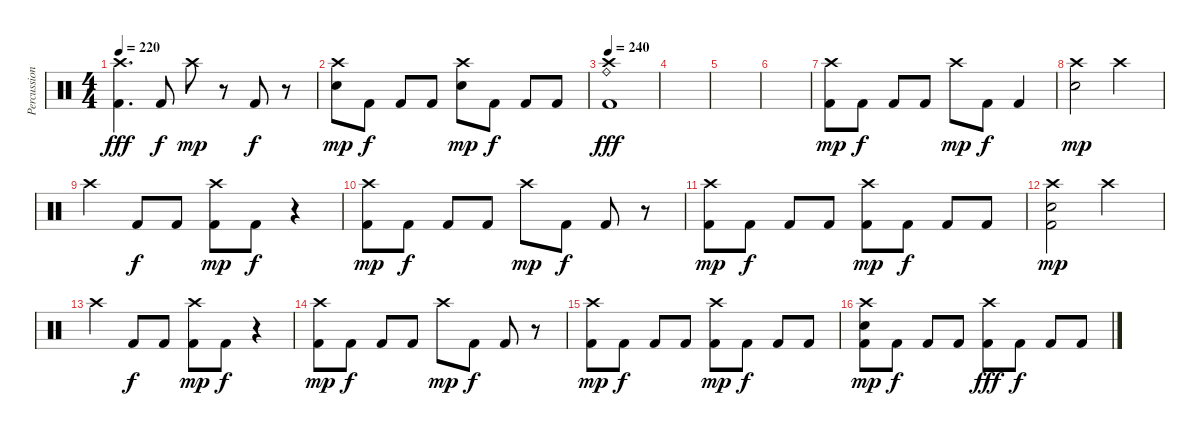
\track ("Percussion" "Percussion") {instrument percussion}
\staff {score}
\articulation defaults
\ts (4 4)
\tempo 220
\clef neutral
\ks c
("Crash high (hit)" "Kick (hit) 2").4{d dy fff} "Kick (hit) 2".8{dy f} "Crash high (hit)".8{dy mp} r.8 "Kick (hit) 2".8{dy f} r.8 |
("Crash high (hit)" "Electric Snare (hit)").8{dy mp} "Kick (hit) 2".8{dy f} "Kick (hit) 2".8 "Kick (hit) 2".8 ("Crash high (hit)" "Electric Snare (hit)").8{dy mp} "Kick (hit) 2".8{dy f} "Kick (hit) 2".8 "Kick (hit) 2".8 |
\tempo 240
("Crash high (hit)" "Ride (bell)" "Kick (hit) 2").1{dy fff} |
|
|
|
("Crash high (hit)" "Kick (hit) 2").8{dy mp} "Kick (hit) 2".8{dy f} "Kick (hit) 2".8 "Kick (hit) 2".8 "Crash high (hit)".8{dy mp} "Kick (hit) 2".8{dy f} "Kick (hit) 2".4 |
("Crash high (hit)" "Electric Snare (hit)").2{dy mp} "Crash high (hit)".2 |
"Crash high (hit)".4 "Kick (hit) 2".8{dy f} "Kick (hit) 2".8 ("Crash high (hit)" "Kick (hit) 2").8{dy mp} "Kick (hit) 2".8{dy f} r.4 |
("Crash high (hit)" "Kick (hit) 2").8{dy mp} "Kick (hit) 2".8{dy f} "Kick (hit) 2".8 "Kick (hit) 2".8 "Crash high (hit)".8{dy mp} "Kick (hit) 2".8{dy f} "Kick (hit) 2".8 r.8 |
("Crash high (hit)" "Kick (hit) 2").8{dy mp} "Kick (hit) 2".8{dy f} "Kick (hit) 2".8 "Kick (hit) 2".8 ("Crash high (hit)" "Kick (hit) 2").8{dy mp} "Kick (hit) 2".8{dy f} "Kick (hit) 2".8 "Kick (hit) 2".8 |
("Crash high (hit)" "Electric Snare (hit)" "Kick (hit) 2").2{dy mp} "Crash high (hit)".2 |
"Crash high (hit)".4 "Kick (hit) 2".8{dy f} "Kick (hit) 2".8 ("Crash high (hit)" "Kick (hit) 2").8{dy mp} "Kick (hit) 2".8{dy f} r.4 |
("Crash high (hit)" "Kick (hit) 2").8{dy mp} "Kick (hit) 2".8{dy f} "Kick (hit) 2".8 "Kick (hit) 2".8 "Crash high (hit)".8{dy mp} "Kick (hit) 2".8{dy f} "Kick (hit) 2".8 r.8 |
("Crash high (hit)" "Kick (hit) 2").8{dy mp} "Kick (hit) 2".8{dy f} "Kick (hit) 2".8 "Kick (hit) 2".8 ("Crash high (hit)" "Kick (hit) 2").8{dy mp} "Kick (hit) 2".8{dy f} "Kick (hit) 2".8 "Kick (hit) 2".8 |
("Crash high (hit)" "Electric Snare (hit)" "Kick (hit) 2").8{dy mp} "Kick (hit) 2".8{dy f} "Kick (hit) 2".8 "Kick (hit) 2".8 ("Crash high (hit)" "Kick (hit) 2").8{dy fff} "Kick (hit) 2".8{dy f} "Kick (hit) 2".8 "Kick (hit) 2".8
